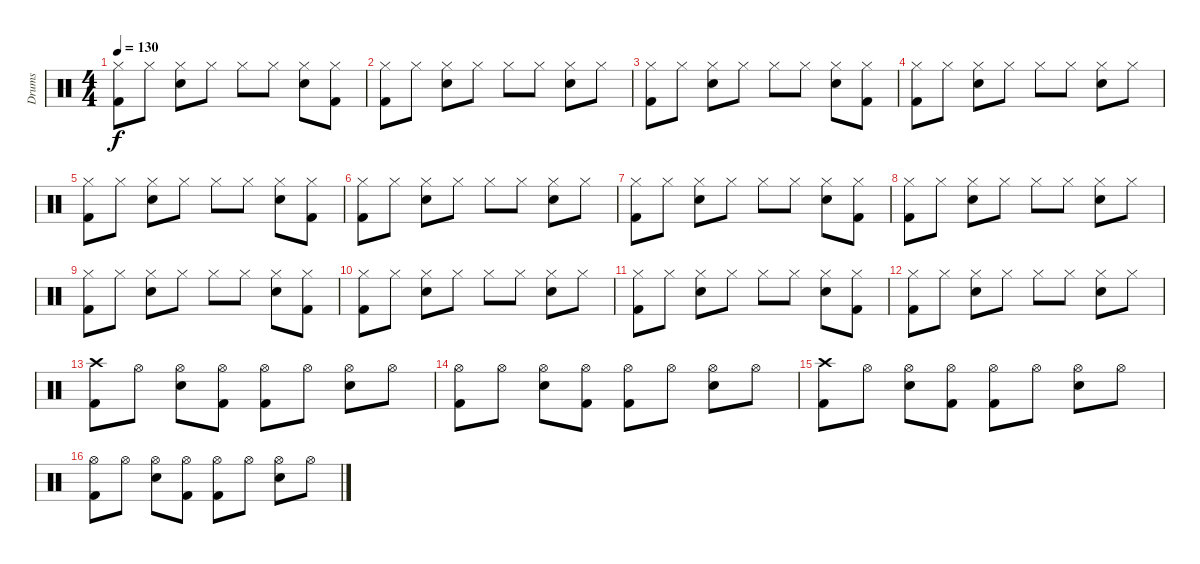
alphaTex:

\track ("Drums" "Drums") {instrument percussion}
\staff {score}
\articulation defaults
\ts (4 4)
\tempo 130
\clef neutral
\ks c
("Hi-Hat (closed)" "Kick (hit) 2").8{dy f} "Hi-Hat (closed)".8 ("Hi-Hat (closed)" "Snare (hit) 2").8 "Hi-Hat (closed)".8 "Hi-Hat (closed)".8 "Hi-Hat (closed)".8 ("Hi-Hat (closed)" "Snare (hit) 2").8 ("Hi-Hat (closed)" "Kick (hit) 2").8 |
("Hi-Hat (closed)" "Kick (hit) 2").8 "Hi-Hat (closed)".8 ("Hi-Hat (closed)" "Snare (hit) 2").8 "Hi-Hat (closed)".8 "Hi-Hat (closed)".8 "Hi-Hat (closed)".8 ("Hi-Hat (closed)" "Snare (hit) 2").8 "Hi-Hat (closed)".8 |
("Hi-Hat (closed)" "Kick (hit) 2").8 "Hi-Hat (closed)".8 ("Hi-Hat (closed)" "Snare (hit) 2").8 "Hi-Hat (closed)".8 "Hi-Hat (closed)".8 "Hi-Hat (closed)".8 ("Hi-Hat (closed)" "Snare (hit) 2").8 ("Hi-Hat (closed)" "Kick (hit) 2").8 |
("Hi-Hat (closed)" "Kick (hit) 2").8 "Hi-Hat (closed)".8 ("Hi-Hat (closed)" "Snare (hit) 2").8 "Hi-Hat (closed)".8 "Hi-Hat (closed)".8 "Hi-Hat (closed)".8 ("Hi-Hat (closed)" "Snare (hit) 2").8 "Hi-Hat (closed)".8 |
("Hi-Hat (closed)" "Kick (hit) 2").8 "Hi-Hat (closed)".8 ("Hi-Hat (closed)" "Snare (hit) 2").8 "Hi-Hat (closed)".8 "Hi-Hat (closed)".8 "Hi-Hat (closed)".8 ("Hi-Hat (closed)" "Snare (hit) 2").8 ("Hi-Hat (closed)" "Kick (hit) 2").8 |
("Hi-Hat (closed)" "Kick (hit) 2").8 "Hi-Hat (closed)".8 ("Hi-Hat (closed)" "Snare (hit) 2").8 "Hi-Hat (closed)".8 "Hi-Hat (closed)".8 "Hi-Hat (closed)".8 ("Hi-Hat (closed)" "Snare (hit) 2").8 "Hi-Hat (closed)".8 |
("Hi-Hat (closed)" "Kick (hit) 2").8 "Hi-Hat (closed)".8 ("Hi-Hat (closed)" "Snare (hit) 2").8 "Hi-Hat (closed)".8 "Hi-Hat (closed)".8 "Hi-Hat (closed)".8 ("Hi-Hat (closed)" "Snare (hit) 2").8 ("Hi-Hat (closed)" "Kick (hit) 2").8 |
("Hi-Hat (closed)" "Kick (hit) 2").8 "Hi-Hat (closed)".8 ("Hi-Hat (closed)" "Snare (hit) 2").8 "Hi-Hat (closed)".8 "Hi-Hat (closed)".8 "Hi-Hat (closed)".8 ("Hi-Hat (closed)" "Snare (hit) 2").8 "Hi-Hat (closed)".8 |
("Hi-Hat (closed)" "Kick (hit) 2").8 "Hi-Hat (closed)".8 ("Hi-Hat (closed)" "Snare (hit) 2").8 "Hi-Hat (closed)".8 "Hi-Hat (closed)".8 "Hi-Hat (closed)".8 ("Hi-Hat (closed)" "Snare (hit) 2").8 ("Hi-Hat (closed)" "Kick (hit) 2").8 |
("Hi-Hat (closed)" "Kick (hit) 2").8 "Hi-Hat (closed)".8 ("Hi-Hat (closed)" "Snare (hit) 2").8 "Hi-Hat (closed)".8 "Hi-Hat (closed)".8 "Hi-Hat (closed)".8 ("Hi-Hat (closed)" "Snare (hit) 2").8 "Hi-Hat (closed)".8 |
("Hi-Hat (closed)" "Kick (hit) 2").8 "Hi-Hat (closed)".8 ("Hi-Hat (closed)" "Snare (hit) 2").8 "Hi-Hat (closed)".8 "Hi-Hat (closed)".8 "Hi-Hat (closed)".8 ("Hi-Hat (closed)" "Snare (hit) 2").8 ("Hi-Hat (closed)" "Kick (hit) 2").8 |
("Hi-Hat (closed)" "Kick (hit) 2").8 "Hi-Hat (closed)".8 ("Hi-Hat (closed)" "Snare (hit) 2").8 "Hi-Hat (closed)".8 "Hi-Hat (closed)".8 "Hi-Hat (closed)".8 ("Hi-Hat (closed)" "Snare (hit) 2").8 "Hi-Hat (closed)".8 |
("Crash high (hit)" "Kick (hit) 2").8 "Hi-Hat (open)".8 ("Hi-Hat (open)" "Snare (hit) 2").8 ("Hi-Hat (open)" "Kick (hit) 2").8 ("Hi-Hat (open)" "Kick (hit) 2").8 "Hi-Hat (open)".8 ("Hi-Hat (open)" "Snare (hit) 2").8 "Hi-Hat (open)".8 |
("Hi-Hat (open)" "Kick (hit) 2").8 "Hi-Hat (open)".8 ("Hi-Hat (open)" "Snare (hit) 2").8 ("Hi-Hat (open)" "Kick (hit) 2").8 ("Hi-Hat (open)" "Kick (hit) 2").8 "Hi-Hat (open)".8 ("Hi-Hat (open)" "Snare (hit) 2").8 "Hi-Hat (open)".8 |
("Crash high (hit)" "Kick (hit) 2").8 "Hi-Hat (open)".8 ("Hi-Hat (open)" "Snare (hit) 2").8 ("Hi-Hat (open)" "Kick (hit) 2").8 ("Hi-Hat (open)" "Kick (hit) 2").8 "Hi-Hat (open)".8 ("Hi-Hat (open)" "Snare (hit) 2").8 "Hi-Hat (open)".8 |
("Hi-Hat (open)" "Kick (hit) 2").8 "Hi-Hat (open)".8 ("Hi-Hat (open)" "Snare (hit) 2").8 ("Hi-Hat (open)" "Kick (hit) 2").8 ("Hi-Hat (open)" "Kick (hit) 2").8 "Hi-Hat (open)".8 ("Hi-Hat (open)" "Snare (hit) 2").8 "Hi-Hat (open)".8
